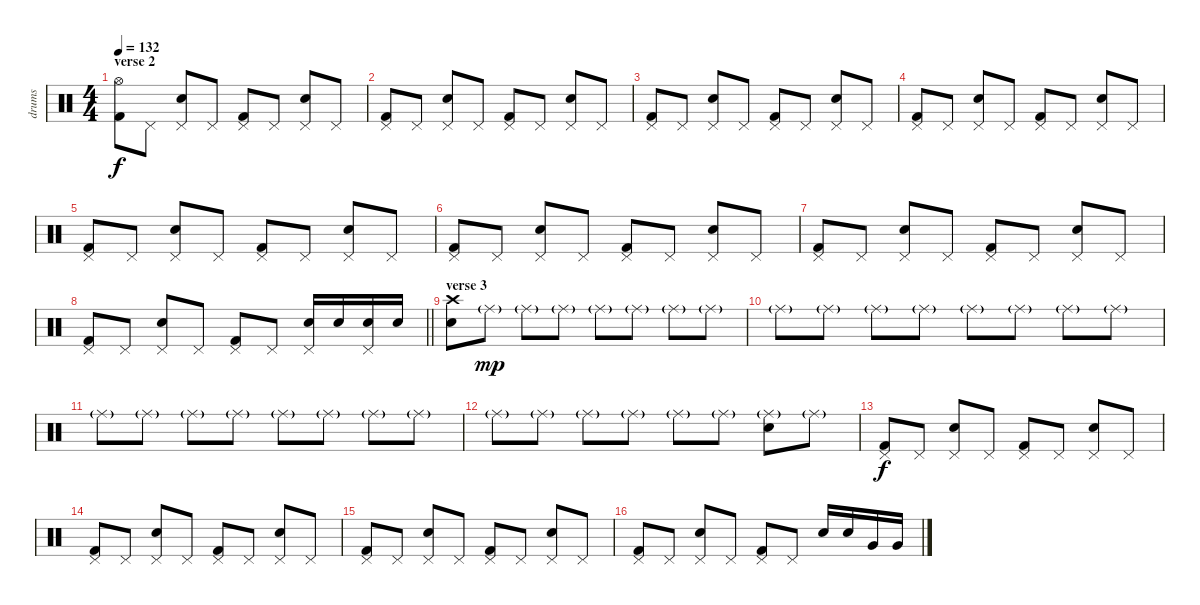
\track ("drums" "drums") {instrument percussion}
\staff {score}
\articulation defaults
\ts (4 4)
\section ("" "verse 2")
\tempo 132
\clef neutral
\ks c
("Kick (hit) 2" "Hi-Hat (open)").8{dy f} "Pedal Hi-Hat (hit)".8 ("Electric Snare (hit)" "Pedal Hi-Hat (hit)").8 "Pedal Hi-Hat (hit)".8 ("Kick (hit) 2" "Pedal Hi-Hat (hit)").8 "Pedal Hi-Hat (hit)".8 ("Electric Snare (hit)" "Pedal Hi-Hat (hit)").8 "Pedal Hi-Hat (hit)".8 |
("Kick (hit) 2" "Pedal Hi-Hat (hit)").8 "Pedal Hi-Hat (hit)".8 ("Electric Snare (hit)" "Pedal Hi-Hat (hit)").8 "Pedal Hi-Hat (hit)".8 ("Kick (hit) 2" "Pedal Hi-Hat (hit)").8 "Pedal Hi-Hat (hit)".8 ("Electric Snare (hit)" "Pedal Hi-Hat (hit)").8 "Pedal Hi-Hat (hit)".8 |
("Kick (hit) 2" "Pedal Hi-Hat (hit)").8 "Pedal Hi-Hat (hit)".8 ("Electric Snare (hit)" "Pedal Hi-Hat (hit)").8 "Pedal Hi-Hat (hit)".8 ("Kick (hit) 2" "Pedal Hi-Hat (hit)").8 "Pedal Hi-Hat (hit)".8 ("Electric Snare (hit)" "Pedal Hi-Hat (hit)").8 "Pedal Hi-Hat (hit)".8 |
("Kick (hit) 2" "Pedal Hi-Hat (hit)").8 "Pedal Hi-Hat (hit)".8 ("Electric Snare (hit)" "Pedal Hi-Hat (hit)").8 "Pedal Hi-Hat (hit)".8 ("Kick (hit) 2" "Pedal Hi-Hat (hit)").8 "Pedal Hi-Hat (hit)".8 ("Electric Snare (hit)" "Pedal Hi-Hat (hit)").8 "Pedal Hi-Hat (hit)".8 |
("Kick (hit) 2" "Pedal Hi-Hat (hit)").8 "Pedal Hi-Hat (hit)".8 ("Electric Snare (hit)" "Pedal Hi-Hat (hit)").8 "Pedal Hi-Hat (hit)".8 ("Kick (hit) 2" "Pedal Hi-Hat (hit)").8 "Pedal Hi-Hat (hit)".8 ("Electric Snare (hit)" "Pedal Hi-Hat (hit)").8 "Pedal Hi-Hat (hit)".8 |
("Kick (hit) 2" "Pedal Hi-Hat (hit)").8 "Pedal Hi-Hat (hit)".8 ("Electric Snare (hit)" "Pedal Hi-Hat (hit)").8 "Pedal Hi-Hat (hit)".8 ("Kick (hit) 2" "Pedal Hi-Hat (hit)").8 "Pedal Hi-Hat (hit)".8 ("Electric Snare (hit)" "Pedal Hi-Hat (hit)").8 "Pedal Hi-Hat (hit)".8 |
("Kick (hit) 2" "Pedal Hi-Hat (hit)").8 "Pedal Hi-Hat (hit)".8 ("Electric Snare (hit)" "Pedal Hi-Hat (hit)").8 "Pedal Hi-Hat (hit)".8 ("Kick (hit) 2" "Pedal Hi-Hat (hit)").8 "Pedal Hi-Hat (hit)".8 ("Electric Snare (hit)" "Pedal Hi-Hat (hit)").8 "Pedal Hi-Hat (hit)".8 |
\barLineRight lightlight
("Kick (hit) 2" "Pedal Hi-Hat (hit)").8 "Pedal Hi-Hat (hit)".8 ("Electric Snare (hit)" "Pedal Hi-Hat (hit)").8 "Pedal Hi-Hat (hit)".8 ("Kick (hit) 2" "Pedal Hi-Hat (hit)").8 "Pedal Hi-Hat (hit)".8 ("Electric Snare (hit)" "Pedal Hi-Hat (hit)").16 "Electric Snare (hit)".16 ("Electric Snare (hit)" "Pedal Hi-Hat (hit)").16 "Electric Snare (hit)".16 |
\section ("" "verse 3")
("Electric Snare (hit)" "Crash high (hit)").8 "Ride (middle)"{g}.8{dy mp} "Ride (middle)"{g}.8 "Ride (middle)"{g}.8 "Ride (middle)"{g}.8 "Ride (middle)"{g}.8 "Ride (middle)"{g}.8 "Ride (middle)"{g}.8 |
"Ride (middle)"{g}.8 "Ride (middle)"{g}.8 "Ride (middle)"{g}.8 "Ride (middle)"{g}.8 "Ride (middle)"{g}.8 "Ride (middle)"{g}.8 "Ride (middle)"{g}.8 "Ride (middle)"{g}.8 |
"Ride (middle)"{g}.8 "Ride (middle)"{g}.8 "Ride (middle)"{g}.8 "Ride (middle)"{g}.8 "Ride (middle)"{g}.8 "Ride (middle)"{g}.8 "Ride (middle)"{g}.8 "Ride (middle)"{g}.8 |
"Ride (middle)"{g}.8 "Ride (middle)"{g}.8 "Ride (middle)"{g}.8 "Ride (middle)"{g}.8 "Ride (middle)"{g}.8 "Ride (middle)"{g}.8 ("Electric Snare (hit)" "Ride (middle)"{g}).8 "Ride (middle)"{g}.8 |
("Kick (hit) 2" "Pedal Hi-Hat (hit)").8{dy f} "Pedal Hi-Hat (hit)".8 ("Electric Snare (hit)" "Pedal Hi-Hat (hit)").8 "Pedal Hi-Hat (hit)".8 ("Kick (hit) 2" "Pedal Hi-Hat (hit)").8 "Pedal Hi-Hat (hit)".8 ("Electric Snare (hit)" "Pedal Hi-Hat (hit)").8 "Pedal Hi-Hat (hit)".8 |
("Kick (hit) 2" "Pedal Hi-Hat (hit)").8 "Pedal Hi-Hat (hit)".8 ("Electric Snare (hit)" "Pedal Hi-Hat (hit)").8 "Pedal Hi-Hat (hit)".8 ("Kick (hit) 2" "Pedal Hi-Hat (hit)").8 "Pedal Hi-Hat (hit)".8 ("Electric Snare (hit)" "Pedal Hi-Hat (hit)").8 "Pedal Hi-Hat (hit)".8 |
("Kick (hit) 2" "Pedal Hi-Hat (hit)").8 "Pedal Hi-Hat (hit)".8 ("Electric Snare (hit)" "Pedal Hi-Hat (hit)").8 "Pedal Hi-Hat (hit)".8 ("Kick (hit) 2" "Pedal Hi-Hat (hit)").8 "Pedal Hi-Hat (hit)".8 ("Electric Snare (hit)" "Pedal Hi-Hat (hit)").8 "Pedal Hi-Hat (hit)".8 |
("Kick (hit) 2" "Pedal Hi-Hat (hit)").8 "Pedal Hi-Hat (hit)".8 ("Electric Snare (hit)" "Pedal Hi-Hat (hit)").8 "Pedal Hi-Hat (hit)".8 ("Kick (hit) 2" "Pedal Hi-Hat (hit)").8 "Pedal Hi-Hat (hit)".8 "Electric Snare (hit)".16 "Electric Snare (hit)".16 "Very Low Tom (hit)".16 "Very Low Tom (hit)".16
